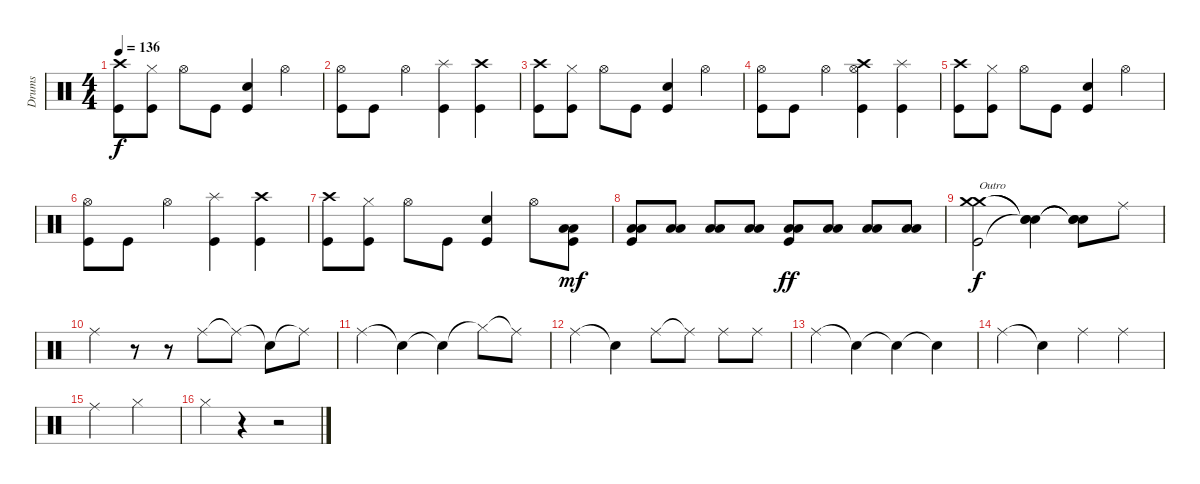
\track ("Drums" "Drums") {instrument percussion}
\staff {score}
\articulation defaults
\ts (4 4)
\tempo 136
\clef neutral
\ks c
("Crash high (hit)" "Kick (hit)").8{dy f} ("Hi-Hat (closed)" "Kick (hit)").8 "Hi-Hat (open)".8 "Kick (hit)".8 ("Snare (hit) 2" "Kick (hit)").4 "Hi-Hat (open)".4 |
("Hi-Hat (open)" "Kick (hit)").8 "Kick (hit)".8 "Hi-Hat (open)".4 ("Splash (hit)" "Kick (hit)").4 ("Crash high (hit)" "Kick (hit)").4 |
("Crash high (hit)" "Kick (hit)").8 ("Hi-Hat (closed)" "Kick (hit)").8 "Hi-Hat (open)".8 "Kick (hit)".8 ("Snare (hit) 2" "Kick (hit)").4 "Hi-Hat (open)".4 |
("Hi-Hat (open)" "Kick (hit)").8 "Kick (hit)".8 "Hi-Hat (open)".4 ("Crash high (hit)" "Hi-Hat (open)" "Kick (hit)").4 ("Splash (hit)" "Kick (hit)").4 |
("Crash high (hit)" "Kick (hit)").8 ("Hi-Hat (closed)" "Kick (hit)").8 "Hi-Hat (open)".8 "Kick (hit)".8 ("Snare (hit) 2" "Kick (hit)").4 "Hi-Hat (open)".4 |
("Hi-Hat (open)" "Kick (hit)").8 "Kick (hit)".8 "Hi-Hat (open)".4 ("Splash (hit)" "Kick (hit)").4 ("Crash high (hit)" "Kick (hit)").4 |
("Crash high (hit)" "Kick (hit)").8 ("Hi-Hat (closed)" "Kick (hit)").8 "Hi-Hat (open)".8 "Kick (hit)".8 ("Snare (hit) 2" "Kick (hit)").4 "Hi-Hat (open)".8 ("Low Floor Tom (hit)" "Low Floor Tom (hit)" "Kick (hit)").8{dy mf} |
("Low Floor Tom (hit)" "Low Floor Tom (hit)" "Kick (hit)").8 ("Low Floor Tom (hit)" "Low Floor Tom (hit)").8 ("Low Floor Tom (hit)" "Low Floor Tom (hit)").8 ("Low Floor Tom (hit)" "Low Floor Tom (hit)").8 ("Low Floor Tom (hit)" "Low Floor Tom (hit)" "Kick (hit)").8{dy ff} ("Low Floor Tom (hit)" "Low Floor Tom (hit)").8 ("Low Floor Tom (hit)" "Low Floor Tom (hit)").8 ("Low Floor Tom (hit)" "Low Floor Tom (hit)").8 |
("Crash medium (hit)" "Crash medium (hit)" "Kick (hit)").2{txt "Outro" dy f} ("Snare (hit)"{t} "Snare (hit)"{t} "Snare (hit)"{t}).4 ("Snare (hit)"{t} "Snare (hit)"{t} "Snare (hit)"{t}).8 "Ride (middle)".8 |
"Ride (middle)".4 r.8 r.8 "Ride (middle)".8 "Ride (middle)"{t}.8 "Snare (hit)"{t}.8 "Ride (middle)"{t}.8 |
"Ride (middle)".4 "Snare (hit)"{t}.4 "Snare (hit)"{t}.4 "Hi-Hat (closed)"{t}.8 "Ride (middle)"{t}.8 |
"Ride (middle)".4 "Snare (hit)"{t}.4 "Ride (middle)".8 "Ride (middle)"{t}.8 "Ride (middle)".8 "Ride (middle)".8 |
"Ride (middle)".4 "Snare (hit)"{t}.4 "Snare (hit)"{t}.4 "Snare (hit)"{t}.4 |
"Ride (middle)".4 "Snare (hit)"{t}.4 "Ride (middle)".4 "Ride (middle)".4 |
"Ride (middle)".2 "Hi-Hat (closed)".2 |
"Hi-Hat (closed)".4 r.4 r.2
